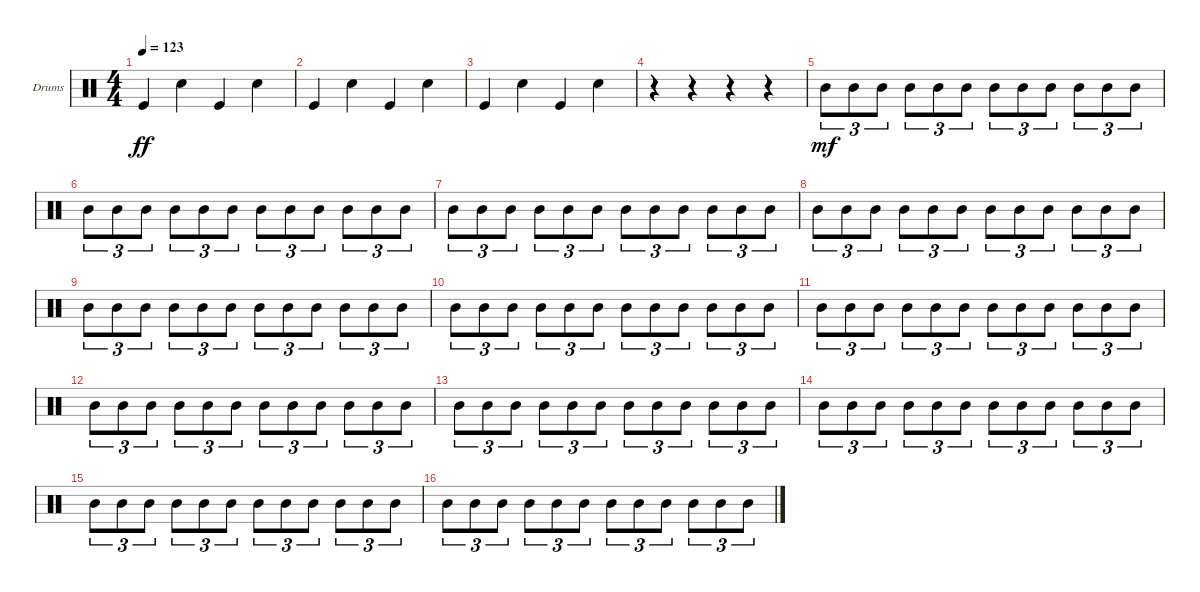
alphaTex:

\defaultSystemsLayout 4
\bracketExtendMode groupsimilarinstruments
\firstSystemTrackNameOrientation horizontal
\otherSystemsTrackNameOrientation horizontal
\track ("Drumkit" "Drums") {instrument percussion}
\staff {score}
\articulation defaults
\ts (4 4)
\tempo 123
\clef neutral
\scale
0.333333
\ks c "Kick (hit)".4{dy ff} "Snare (hit) 2".4 "Kick (hit)".4 "Snare (hit) 2".4
|
\scale
0.333333 "Kick (hit)".4 "Snare (hit) 2".4 "Kick (hit)".4 "Snare (hit) 2".4 |
\scale
0.333333 "Kick (hit)".4 "Snare (hit) 2".4 "Kick (hit)".4 "Snare (hit) 2".4 |
\scale
0.333333 r.4 r.4 r.4 r.4 |
\scale
0.333333 "Mid Tom (hit)".8{tu (3 2) dy mf} "Mid Tom (hit)".8{tu (3 2)} "Mid Tom (hit)".8{tu (3 2)} "Mid Tom (hit)".8{tu (3 2)} "Mid Tom (hit)".8{tu (3 2)} "Mid Tom (hit)".8{tu (3 2)} "Mid Tom (hit)".8{tu (3 2)} "Mid Tom (hit)".8{tu (3 2)} "Mid Tom (hit)".8{tu (3 2)} "Mid Tom (hit)".8{tu (3 2)} "Mid Tom (hit)".8{tu (3 2)} "Mid Tom (hit)".8{tu (3 2)} |
\scale
0.333333 "Mid Tom (hit)".8{tu (3 2)} "Mid Tom (hit)".8{tu (3 2)} "Mid Tom (hit)".8{tu (3 2)} "Mid Tom (hit)".8{tu (3 2)} "Mid Tom (hit)".8{tu (3 2)} "Mid Tom (hit)".8{tu (3 2)} "Mid Tom (hit)".8{tu (3 2)} "Mid Tom (hit)".8{tu (3 2)} "Mid Tom (hit)".8{tu (3 2)} "Mid Tom (hit)".8{tu (3 2)} "Mid Tom (hit)".8{tu (3 2)} "Mid Tom (hit)".8{tu (3 2)} |
\scale
0.333333 "Mid Tom (hit)".8{tu (3 2)} "Mid Tom (hit)".8{tu (3 2)} "Mid Tom (hit)".8{tu (3 2)} "Mid Tom (hit)".8{tu (3 2)} "Mid Tom (hit)".8{tu (3 2)} "Mid Tom (hit)".8{tu (3 2)} "Mid Tom (hit)".8{tu (3 2)} "Mid Tom (hit)".8{tu (3 2)} "Mid Tom (hit)".8{tu (3 2)} "Mid Tom (hit)".8{tu (3 2)} "Mid Tom (hit)".8{tu (3 2)} "Mid Tom (hit)".8{tu (3 2)} |
\scale
0.333333 "Mid Tom (hit)".8{tu (3 2)} "Mid Tom (hit)".8{tu (3 2)} "Mid Tom (hit)".8{tu (3 2)} "Mid Tom (hit)".8{tu (3 2)} "Mid Tom (hit)".8{tu (3 2)} "Mid Tom (hit)".8{tu (3 2)} "Mid Tom (hit)".8{tu (3 2)} "Mid Tom (hit)".8{tu (3 2)} "Mid Tom (hit)".8{tu (3 2)} "Mid Tom (hit)".8{tu (3 2)} "Mid Tom (hit)".8{tu (3 2)} "Mid Tom (hit)".8{tu (3 2)} |
\scale
0.333333 "Mid Tom (hit)".8{tu (3 2)} "Mid Tom (hit)".8{tu (3 2)} "Mid Tom (hit)".8{tu (3 2)} "Mid Tom (hit)".8{tu (3 2)} "Mid Tom (hit)".8{tu (3 2)} "Mid Tom (hit)".8{tu (3 2)} "Mid Tom (hit)".8{tu (3 2)} "Mid Tom (hit)".8{tu (3 2)} "Mid Tom (hit)".8{tu (3 2)} "Mid Tom (hit)".8{tu (3 2)} "Mid Tom (hit)".8{tu (3 2)} "Mid Tom (hit)".8{tu (3 2)} |
\scale
0.333333 "Mid Tom (hit)".8{tu (3 2)} "Mid Tom (hit)".8{tu (3 2)} "Mid Tom (hit)".8{tu (3 2)} "Mid Tom (hit)".8{tu (3 2)} "Mid Tom (hit)".8{tu (3 2)} "Mid Tom (hit)".8{tu (3 2)} "Mid Tom (hit)".8{tu (3 2)} "Mid Tom (hit)".8{tu (3 2)} "Mid Tom (hit)".8{tu (3 2)} "Mid Tom (hit)".8{tu (3 2)} "Mid Tom (hit)".8{tu (3 2)} "Mid Tom (hit)".8{tu (3 2)} |
\scale
0.333333 "Mid Tom (hit)".8{tu (3 2)} "Mid Tom (hit)".8{tu (3 2)} "Mid Tom (hit)".8{tu (3 2)} "Mid Tom (hit)".8{tu (3 2)} "Mid Tom (hit)".8{tu (3 2)} "Mid Tom (hit)".8{tu (3 2)} "Mid Tom (hit)".8{tu (3 2)} "Mid Tom (hit)".8{tu (3 2)} "Mid Tom (hit)".8{tu (3 2)} "Mid Tom (hit)".8{tu (3 2)} "Mid Tom (hit)".8{tu (3 2)} "Mid Tom (hit)".8{tu (3 2)} |
\scale
0.333333 "Mid Tom (hit)".8{tu (3 2)} "Mid Tom (hit)".8{tu (3 2)} "Mid Tom (hit)".8{tu (3 2)} "Mid Tom (hit)".8{tu (3 2)} "Mid Tom (hit)".8{tu (3 2)} "Mid Tom (hit)".8{tu (3 2)} "Mid Tom (hit)".8{tu (3 2)} "Mid Tom (hit)".8{tu (3 2)} "Mid Tom (hit)".8{tu (3 2)} "Mid Tom (hit)".8{tu (3 2)} "Mid Tom (hit)".8{tu (3 2)} "Mid Tom (hit)".8{tu (3 2)} |
\scale
0.333333 "Mid Tom (hit)".8{tu (3 2)} "Mid Tom (hit)".8{tu (3 2)} "Mid Tom (hit)".8{tu (3 2)} "Mid Tom (hit)".8{tu (3 2)} "Mid Tom (hit)".8{tu (3 2)} "Mid Tom (hit)".8{tu (3 2)} "Mid Tom (hit)".8{tu (3 2)} "Mid Tom (hit)".8{tu (3 2)} "Mid Tom (hit)".8{tu (3 2)} "Mid Tom (hit)".8{tu (3 2)} "Mid Tom (hit)".8{tu (3 2)} "Mid Tom (hit)".8{tu (3 2)} |
\scale
0.333333 "Mid Tom (hit)".8{tu (3 2)} "Mid Tom (hit)".8{tu (3 2)} "Mid Tom (hit)".8{tu (3 2)} "Mid Tom (hit)".8{tu (3 2)} "Mid Tom (hit)".8{tu (3 2)} "Mid Tom (hit)".8{tu (3 2)} "Mid Tom (hit)".8{tu (3 2)} "Mid Tom (hit)".8{tu (3 2)} "Mid Tom (hit)".8{tu (3 2)} "Mid Tom (hit)".8{tu (3 2)} "Mid Tom (hit)".8{tu (3 2)} "Mid Tom (hit)".8{tu (3 2)} |
\scale
0.333333 "Mid Tom (hit)".8{tu (3 2)} "Mid Tom (hit)".8{tu (3 2)} "Mid Tom (hit)".8{tu (3 2)} "Mid Tom (hit)".8{tu (3 2)} "Mid Tom (hit)".8{tu (3 2)} "Mid Tom (hit)".8{tu (3 2)} "Mid Tom (hit)".8{tu (3 2)} "Mid Tom (hit)".8{tu (3 2)} "Mid Tom (hit)".8{tu (3 2)} "Mid Tom (hit)".8{tu (3 2)} "Mid Tom (hit)".8{tu (3 2)} "Mid Tom (hit)".8{tu (3 2)} |
\scale
0.333333 "Mid Tom (hit)".8{tu (3 2)} "Mid Tom (hit)".8{tu (3 2)} "Mid Tom (hit)".8{tu (3 2)} "Mid Tom (hit)".8{tu (3 2)} "Mid Tom (hit)".8{tu (3 2)} "Mid Tom (hit)".8{tu (3 2)} "Mid Tom (hit)".8{tu (3 2)} "Mid Tom (hit)".8{tu (3 2)} "Mid Tom (hit)".8{tu (3 2)} "Mid Tom (hit)".8{tu (3 2)} "Mid Tom (hit)".8{tu (3 2)} "Mid Tom (hit)".8{tu (3 2)}
